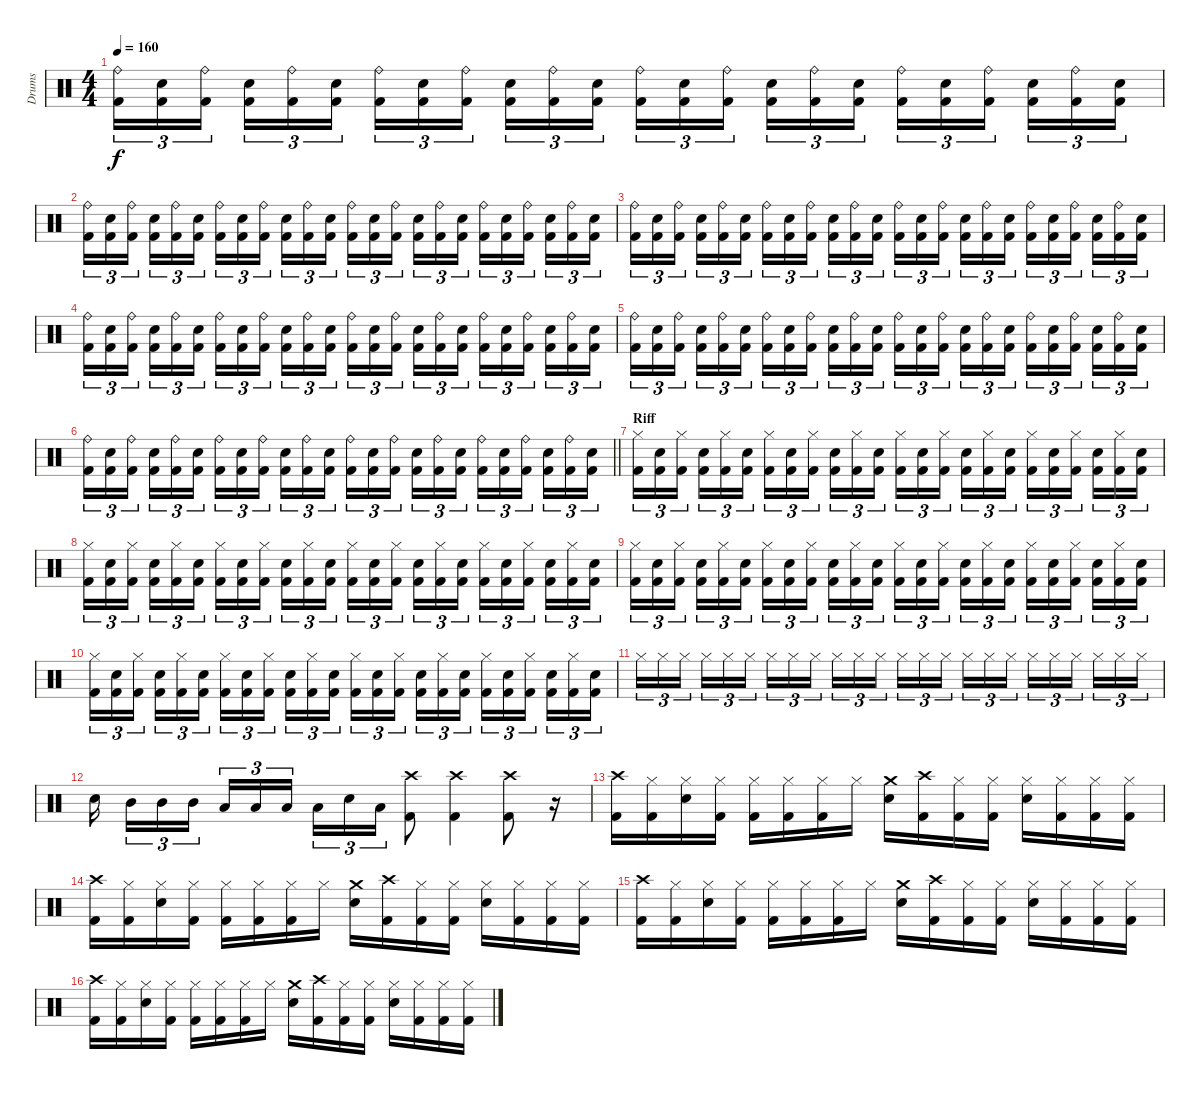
\track ("Drums" "Drums") {instrument percussion}
\staff {score}
\articulation defaults
\ts (4 4)
\tempo 160
\clef neutral
\ks c
("Ride (bell)" "Kick (hit) 2").16{tu (3 2) dy f} ("Electric Snare (hit)" "Kick (hit) 2").16{tu (3 2)} ("Ride (bell)" "Kick (hit) 2").16{tu (3 2) beam splitsecondary} ("Electric Snare (hit)" "Kick (hit) 2").16{tu (3 2)} ("Ride (bell)" "Kick (hit) 2").16{tu (3 2)} ("Electric Snare (hit)" "Kick (hit) 2").16{tu (3 2)} ("Ride (bell)" "Kick (hit) 2").16{tu (3 2)} ("Electric Snare (hit)" "Kick (hit) 2").16{tu (3 2)} ("Ride (bell)" "Kick (hit) 2").16{tu (3 2) beam splitsecondary} ("Electric Snare (hit)" "Kick (hit) 2").16{tu (3 2)} ("Ride (bell)" "Kick (hit) 2").16{tu (3 2)} ("Electric Snare (hit)" "Kick (hit) 2").16{tu (3 2)} ("Ride (bell)" "Kick (hit) 2").16{tu (3 2)} ("Electric Snare (hit)" "Kick (hit) 2").16{tu (3 2)} ("Ride (bell)" "Kick (hit) 2").16{tu (3 2) beam splitsecondary} ("Electric Snare (hit)" "Kick (hit) 2").16{tu (3 2)} ("Ride (bell)" "Kick (hit) 2").16{tu (3 2)} ("Electric Snare (hit)" "Kick (hit) 2").16{tu (3 2)} ("Ride (bell)" "Kick (hit) 2").16{tu (3 2)} ("Electric Snare (hit)" "Kick (hit) 2").16{tu (3 2)} ("Ride (bell)" "Kick (hit) 2").16{tu (3 2) beam splitsecondary} ("Electric Snare (hit)" "Kick (hit) 2").16{tu (3 2)} ("Ride (bell)" "Kick (hit) 2").16{tu (3 2)} ("Electric Snare (hit)" "Kick (hit) 2").16{tu (3 2)} |
("Ride (bell)" "Kick (hit) 2").16{tu (3 2)} ("Electric Snare (hit)" "Kick (hit) 2").16{tu (3 2)} ("Ride (bell)" "Kick (hit) 2").16{tu (3 2) beam splitsecondary} ("Electric Snare (hit)" "Kick (hit) 2").16{tu (3 2)} ("Ride (bell)" "Kick (hit) 2").16{tu (3 2)} ("Electric Snare (hit)" "Kick (hit) 2").16{tu (3 2)} ("Ride (bell)" "Kick (hit) 2").16{tu (3 2)} ("Electric Snare (hit)" "Kick (hit) 2").16{tu (3 2)} ("Ride (bell)" "Kick (hit) 2").16{tu (3 2) beam splitsecondary} ("Electric Snare (hit)" "Kick (hit) 2").16{tu (3 2)} ("Ride (bell)" "Kick (hit) 2").16{tu (3 2)} ("Electric Snare (hit)" "Kick (hit) 2").16{tu (3 2)} ("Ride (bell)" "Kick (hit) 2").16{tu (3 2)} ("Electric Snare (hit)" "Kick (hit) 2").16{tu (3 2)} ("Ride (bell)" "Kick (hit) 2").16{tu (3 2) beam splitsecondary} ("Electric Snare (hit)" "Kick (hit) 2").16{tu (3 2)} ("Ride (bell)" "Kick (hit) 2").16{tu (3 2)} ("Electric Snare (hit)" "Kick (hit) 2").16{tu (3 2)} ("Ride (bell)" "Kick (hit) 2").16{tu (3 2)} ("Electric Snare (hit)" "Kick (hit) 2").16{tu (3 2)} ("Ride (bell)" "Kick (hit) 2").16{tu (3 2) beam splitsecondary} ("Electric Snare (hit)" "Kick (hit) 2").16{tu (3 2)} ("Ride (bell)" "Kick (hit) 2").16{tu (3 2)} ("Electric Snare (hit)" "Kick (hit) 2").16{tu (3 2)} |
("Ride (bell)" "Kick (hit) 2").16{tu (3 2)} ("Electric Snare (hit)" "Kick (hit) 2").16{tu (3 2)} ("Ride (bell)" "Kick (hit) 2").16{tu (3 2) beam splitsecondary} ("Electric Snare (hit)" "Kick (hit) 2").16{tu (3 2)} ("Ride (bell)" "Kick (hit) 2").16{tu (3 2)} ("Electric Snare (hit)" "Kick (hit) 2").16{tu (3 2)} ("Ride (bell)" "Kick (hit) 2").16{tu (3 2)} ("Electric Snare (hit)" "Kick (hit) 2").16{tu (3 2)} ("Ride (bell)" "Kick (hit) 2").16{tu (3 2) beam splitsecondary} ("Electric Snare (hit)" "Kick (hit) 2").16{tu (3 2)} ("Ride (bell)" "Kick (hit) 2").16{tu (3 2)} ("Electric Snare (hit)" "Kick (hit) 2").16{tu (3 2)} ("Ride (bell)" "Kick (hit) 2").16{tu (3 2)} ("Electric Snare (hit)" "Kick (hit) 2").16{tu (3 2)} ("Ride (bell)" "Kick (hit) 2").16{tu (3 2) beam splitsecondary} ("Electric Snare (hit)" "Kick (hit) 2").16{tu (3 2)} ("Ride (bell)" "Kick (hit) 2").16{tu (3 2)} ("Electric Snare (hit)" "Kick (hit) 2").16{tu (3 2)} ("Ride (bell)" "Kick (hit) 2").16{tu (3 2)} ("Electric Snare (hit)" "Kick (hit) 2").16{tu (3 2)} ("Ride (bell)" "Kick (hit) 2").16{tu (3 2) beam splitsecondary} ("Electric Snare (hit)" "Kick (hit) 2").16{tu (3 2)} ("Ride (bell)" "Kick (hit) 2").16{tu (3 2)} ("Electric Snare (hit)" "Kick (hit) 2").16{tu (3 2)} |
("Ride (bell)" "Kick (hit) 2").16{tu (3 2)} ("Electric Snare (hit)" "Kick (hit) 2").16{tu (3 2)} ("Ride (bell)" "Kick (hit) 2").16{tu (3 2) beam splitsecondary} ("Electric Snare (hit)" "Kick (hit) 2").16{tu (3 2)} ("Ride (bell)" "Kick (hit) 2").16{tu (3 2)} ("Electric Snare (hit)" "Kick (hit) 2").16{tu (3 2)} ("Ride (bell)" "Kick (hit) 2").16{tu (3 2)} ("Electric Snare (hit)" "Kick (hit) 2").16{tu (3 2)} ("Ride (bell)" "Kick (hit) 2").16{tu (3 2) beam splitsecondary} ("Electric Snare (hit)" "Kick (hit) 2").16{tu (3 2)} ("Ride (bell)" "Kick (hit) 2").16{tu (3 2)} ("Electric Snare (hit)" "Kick (hit) 2").16{tu (3 2)} ("Ride (bell)" "Kick (hit) 2").16{tu (3 2)} ("Electric Snare (hit)" "Kick (hit) 2").16{tu (3 2)} ("Ride (bell)" "Kick (hit) 2").16{tu (3 2) beam splitsecondary} ("Electric Snare (hit)" "Kick (hit) 2").16{tu (3 2)} ("Ride (bell)" "Kick (hit) 2").16{tu (3 2)} ("Electric Snare (hit)" "Kick (hit) 2").16{tu (3 2)} ("Ride (bell)" "Kick (hit) 2").16{tu (3 2)} ("Electric Snare (hit)" "Kick (hit) 2").16{tu (3 2)} ("Ride (bell)" "Kick (hit) 2").16{tu (3 2) beam splitsecondary} ("Electric Snare (hit)" "Kick (hit) 2").16{tu (3 2)} ("Ride (bell)" "Kick (hit) 2").16{tu (3 2)} ("Electric Snare (hit)" "Kick (hit) 2").16{tu (3 2)} |
("Ride (bell)" "Kick (hit) 2").16{tu (3 2)} ("Electric Snare (hit)" "Kick (hit) 2").16{tu (3 2)} ("Ride (bell)" "Kick (hit) 2").16{tu (3 2) beam splitsecondary} ("Electric Snare (hit)" "Kick (hit) 2").16{tu (3 2)} ("Ride (bell)" "Kick (hit) 2").16{tu (3 2)} ("Electric Snare (hit)" "Kick (hit) 2").16{tu (3 2)} ("Ride (bell)" "Kick (hit) 2").16{tu (3 2)} ("Electric Snare (hit)" "Kick (hit) 2").16{tu (3 2)} ("Ride (bell)" "Kick (hit) 2").16{tu (3 2) beam splitsecondary} ("Electric Snare (hit)" "Kick (hit) 2").16{tu (3 2)} ("Ride (bell)" "Kick (hit) 2").16{tu (3 2)} ("Electric Snare (hit)" "Kick (hit) 2").16{tu (3 2)} ("Ride (bell)" "Kick (hit) 2").16{tu (3 2)} ("Electric Snare (hit)" "Kick (hit) 2").16{tu (3 2)} ("Ride (bell)" "Kick (hit) 2").16{tu (3 2) beam splitsecondary} ("Electric Snare (hit)" "Kick (hit) 2").16{tu (3 2)} ("Ride (bell)" "Kick (hit) 2").16{tu (3 2)} ("Electric Snare (hit)" "Kick (hit) 2").16{tu (3 2)} ("Ride (bell)" "Kick (hit) 2").16{tu (3 2)} ("Electric Snare (hit)" "Kick (hit) 2").16{tu (3 2)} ("Ride (bell)" "Kick (hit) 2").16{tu (3 2) beam splitsecondary} ("Electric Snare (hit)" "Kick (hit) 2").16{tu (3 2)} ("Ride (bell)" "Kick (hit) 2").16{tu (3 2)} ("Electric Snare (hit)" "Kick (hit) 2").16{tu (3 2)} |
\barLineRight lightlight
("Ride (bell)" "Kick (hit) 2").16{tu (3 2)} ("Electric Snare (hit)" "Kick (hit) 2").16{tu (3 2)} ("Ride (bell)" "Kick (hit) 2").16{tu (3 2) beam splitsecondary} ("Electric Snare (hit)" "Kick (hit) 2").16{tu (3 2)} ("Ride (bell)" "Kick (hit) 2").16{tu (3 2)} ("Electric Snare (hit)" "Kick (hit) 2").16{tu (3 2)} ("Ride (bell)" "Kick (hit) 2").16{tu (3 2)} ("Electric Snare (hit)" "Kick (hit) 2").16{tu (3 2)} ("Ride (bell)" "Kick (hit) 2").16{tu (3 2) beam splitsecondary} ("Electric Snare (hit)" "Kick (hit) 2").16{tu (3 2)} ("Ride (bell)" "Kick (hit) 2").16{tu (3 2)} ("Electric Snare (hit)" "Kick (hit) 2").16{tu (3 2)} ("Ride (bell)" "Kick (hit) 2").16{tu (3 2)} ("Electric Snare (hit)" "Kick (hit) 2").16{tu (3 2)} ("Ride (bell)" "Kick (hit) 2").16{tu (3 2) beam splitsecondary} ("Electric Snare (hit)" "Kick (hit) 2").16{tu (3 2)} ("Ride (bell)" "Kick (hit) 2").16{tu (3 2)} ("Electric Snare (hit)" "Kick (hit) 2").16{tu (3 2)} ("Ride (bell)" "Kick (hit) 2").16{tu (3 2)} ("Electric Snare (hit)" "Kick (hit) 2").16{tu (3 2)} ("Ride (bell)" "Kick (hit) 2").16{tu (3 2) beam splitsecondary} ("Electric Snare (hit)" "Kick (hit) 2").16{tu (3 2)} ("Ride (bell)" "Kick (hit) 2").16{tu (3 2)} ("Electric Snare (hit)" "Kick (hit) 2").16{tu (3 2)} |
\section ("" "Riff")
("Hi-Hat (closed)" "Kick (hit) 2").16{tu (3 2)} ("Electric Snare (hit)" "Kick (hit) 2").16{tu (3 2)} ("Hi-Hat (closed)" "Kick (hit) 2").16{tu (3 2) beam splitsecondary} ("Electric Snare (hit)" "Kick (hit) 2").16{tu (3 2)} ("Hi-Hat (closed)" "Kick (hit) 2").16{tu (3 2)} ("Electric Snare (hit)" "Kick (hit) 2").16{tu (3 2)} ("Hi-Hat (closed)" "Kick (hit) 2").16{tu (3 2)} ("Electric Snare (hit)" "Kick (hit) 2").16{tu (3 2)} ("Hi-Hat (closed)" "Kick (hit) 2").16{tu (3 2) beam splitsecondary} ("Electric Snare (hit)" "Kick (hit) 2").16{tu (3 2)} ("Hi-Hat (closed)" "Kick (hit) 2").16{tu (3 2)} ("Electric Snare (hit)" "Kick (hit) 2").16{tu (3 2)} ("Hi-Hat (closed)" "Kick (hit) 2").16{tu (3 2)} ("Electric Snare (hit)" "Kick (hit) 2").16{tu (3 2)} ("Hi-Hat (closed)" "Kick (hit) 2").16{tu (3 2) beam splitsecondary} ("Electric Snare (hit)" "Kick (hit) 2").16{tu (3 2)} ("Hi-Hat (closed)" "Kick (hit) 2").16{tu (3 2)} ("Electric Snare (hit)" "Kick (hit) 2").16{tu (3 2)} ("Hi-Hat (closed)" "Kick (hit) 2").16{tu (3 2)} ("Electric Snare (hit)" "Kick (hit) 2").16{tu (3 2)} ("Hi-Hat (closed)" "Kick (hit) 2").16{tu (3 2) beam splitsecondary} ("Electric Snare (hit)" "Kick (hit) 2").16{tu (3 2)} ("Hi-Hat (closed)" "Kick (hit) 2").16{tu (3 2)} ("Electric Snare (hit)" "Kick (hit) 2").16{tu (3 2)} |
("Hi-Hat (closed)" "Kick (hit) 2").16{tu (3 2)} ("Electric Snare (hit)" "Kick (hit) 2").16{tu (3 2)} ("Hi-Hat (closed)" "Kick (hit) 2").16{tu (3 2) beam splitsecondary} ("Electric Snare (hit)" "Kick (hit) 2").16{tu (3 2)} ("Hi-Hat (closed)" "Kick (hit) 2").16{tu (3 2)} ("Electric Snare (hit)" "Kick (hit) 2").16{tu (3 2)} ("Hi-Hat (closed)" "Kick (hit) 2").16{tu (3 2)} ("Electric Snare (hit)" "Kick (hit) 2").16{tu (3 2)} ("Hi-Hat (closed)" "Kick (hit) 2").16{tu (3 2) beam splitsecondary} ("Electric Snare (hit)" "Kick (hit) 2").16{tu (3 2)} ("Hi-Hat (closed)" "Kick (hit) 2").16{tu (3 2)} ("Electric Snare (hit)" "Kick (hit) 2").16{tu (3 2)} ("Hi-Hat (closed)" "Kick (hit) 2").16{tu (3 2)} ("Electric Snare (hit)" "Kick (hit) 2").16{tu (3 2)} ("Hi-Hat (closed)" "Kick (hit) 2").16{tu (3 2) beam splitsecondary} ("Electric Snare (hit)" "Kick (hit) 2").16{tu (3 2)} ("Hi-Hat (closed)" "Kick (hit) 2").16{tu (3 2)} ("Electric Snare (hit)" "Kick (hit) 2").16{tu (3 2)} ("Hi-Hat (closed)" "Kick (hit) 2").16{tu (3 2)} ("Electric Snare (hit)" "Kick (hit) 2").16{tu (3 2)} ("Hi-Hat (closed)" "Kick (hit) 2").16{tu (3 2) beam splitsecondary} ("Electric Snare (hit)" "Kick (hit) 2").16{tu (3 2)} ("Hi-Hat (closed)" "Kick (hit) 2").16{tu (3 2)} ("Electric Snare (hit)" "Kick (hit) 2").16{tu (3 2)} |
("Hi-Hat (closed)" "Kick (hit) 2").16{tu (3 2)} ("Electric Snare (hit)" "Kick (hit) 2").16{tu (3 2)} ("Hi-Hat (closed)" "Kick (hit) 2").16{tu (3 2) beam splitsecondary} ("Electric Snare (hit)" "Kick (hit) 2").16{tu (3 2)} ("Hi-Hat (closed)" "Kick (hit) 2").16{tu (3 2)} ("Electric Snare (hit)" "Kick (hit) 2").16{tu (3 2)} ("Hi-Hat (closed)" "Kick (hit) 2").16{tu (3 2)} ("Electric Snare (hit)" "Kick (hit) 2").16{tu (3 2)} ("Hi-Hat (closed)" "Kick (hit) 2").16{tu (3 2) beam splitsecondary} ("Electric Snare (hit)" "Kick (hit) 2").16{tu (3 2)} ("Hi-Hat (closed)" "Kick (hit) 2").16{tu (3 2)} ("Electric Snare (hit)" "Kick (hit) 2").16{tu (3 2)} ("Hi-Hat (closed)" "Kick (hit) 2").16{tu (3 2)} ("Electric Snare (hit)" "Kick (hit) 2").16{tu (3 2)} ("Hi-Hat (closed)" "Kick (hit) 2").16{tu (3 2) beam splitsecondary} ("Electric Snare (hit)" "Kick (hit) 2").16{tu (3 2)} ("Hi-Hat (closed)" "Kick (hit) 2").16{tu (3 2)} ("Electric Snare (hit)" "Kick (hit) 2").16{tu (3 2)} ("Hi-Hat (closed)" "Kick (hit) 2").16{tu (3 2)} ("Electric Snare (hit)" "Kick (hit) 2").16{tu (3 2)} ("Hi-Hat (closed)" "Kick (hit) 2").16{tu (3 2) beam splitsecondary} ("Electric Snare (hit)" "Kick (hit) 2").16{tu (3 2)} ("Hi-Hat (closed)" "Kick (hit) 2").16{tu (3 2)} ("Electric Snare (hit)" "Kick (hit) 2").16{tu (3 2)} |
("Hi-Hat (closed)" "Kick (hit) 2").16{tu (3 2)} ("Electric Snare (hit)" "Kick (hit) 2").16{tu (3 2)} ("Hi-Hat (closed)" "Kick (hit) 2").16{tu (3 2) beam splitsecondary} ("Electric Snare (hit)" "Kick (hit) 2").16{tu (3 2)} ("Hi-Hat (closed)" "Kick (hit) 2").16{tu (3 2)} ("Electric Snare (hit)" "Kick (hit) 2").16{tu (3 2)} ("Hi-Hat (closed)" "Kick (hit) 2").16{tu (3 2)} ("Electric Snare (hit)" "Kick (hit) 2").16{tu (3 2)} ("Hi-Hat (closed)" "Kick (hit) 2").16{tu (3 2) beam splitsecondary} ("Electric Snare (hit)" "Kick (hit) 2").16{tu (3 2)} ("Hi-Hat (closed)" "Kick (hit) 2").16{tu (3 2)} ("Electric Snare (hit)" "Kick (hit) 2").16{tu (3 2)} ("Hi-Hat (closed)" "Kick (hit) 2").16{tu (3 2)} ("Electric Snare (hit)" "Kick (hit) 2").16{tu (3 2)} ("Hi-Hat (closed)" "Kick (hit) 2").16{tu (3 2) beam splitsecondary} ("Electric Snare (hit)" "Kick (hit) 2").16{tu (3 2)} ("Hi-Hat (closed)" "Kick (hit) 2").16{tu (3 2)} ("Electric Snare (hit)" "Kick (hit) 2").16{tu (3 2)} ("Hi-Hat (closed)" "Kick (hit) 2").16{tu (3 2)} ("Electric Snare (hit)" "Kick (hit) 2").16{tu (3 2)} ("Hi-Hat (closed)" "Kick (hit) 2").16{tu (3 2) beam splitsecondary} ("Electric Snare (hit)" "Kick (hit) 2").16{tu (3 2)} ("Hi-Hat (closed)" "Kick (hit) 2").16{tu (3 2)} ("Electric Snare (hit)" "Kick (hit) 2").16{tu (3 2)} |
"Hi-Hat (closed)".16{tu (3 2)} "Hi-Hat (closed)".16{tu (3 2)} "Hi-Hat (closed)".16{tu (3 2) beam splitsecondary} "Hi-Hat (closed)".16{tu (3 2)} "Hi-Hat (closed)".16{tu (3 2)} "Hi-Hat (closed)".16{tu (3 2)} "Hi-Hat (closed)".16{tu (3 2)} "Hi-Hat (closed)".16{tu (3 2)} "Hi-Hat (closed)".16{tu (3 2) beam splitsecondary} "Hi-Hat (closed)".16{tu (3 2)} "Hi-Hat (closed)".16{tu (3 2)} "Hi-Hat (closed)".16{tu (3 2)} "Hi-Hat (closed)".16{tu (3 2)} "Hi-Hat (closed)".16{tu (3 2)} "Hi-Hat (closed)".16{tu (3 2) beam splitsecondary} "Hi-Hat (closed)".16{tu (3 2)} "Hi-Hat (closed)".16{tu (3 2)} "Hi-Hat (closed)".16{tu (3 2)} "Hi-Hat (closed)".16{tu (3 2)} "Hi-Hat (closed)".16{tu (3 2)} "Hi-Hat (closed)".16{tu (3 2) beam splitsecondary} "Hi-Hat (closed)".16{tu (3 2)} "Hi-Hat (closed)".16{tu (3 2)} "Hi-Hat (closed)".16{tu (3 2)} |
"Electric Snare (hit)".16{beam splitsecondary} "Mid Tom (hit)".16{tu (3 2)} "Mid Tom (hit)".16{tu (3 2)} "Mid Tom (hit)".16{tu (3 2) beam splitsecondary} "Low Tom (hit)".16{tu (3 2)} "Low Tom (hit)".16{tu (3 2)} "Low Tom (hit)".16{tu (3 2) beam splitsecondary} "Low Tom (hit)".16{tu (3 2)} "Electric Snare (hit)".16{tu (3 2)} "Low Tom (hit)".16{tu (3 2)} ("Crash high (hit)" "Kick (hit) 2").8 ("Crash high (hit)" "Kick (hit) 2").4 ("Crash high (hit)" "Kick (hit) 2").8 r.16 |
("Crash high (hit)" "Kick (hit) 2").16 ("Hi-Hat (closed)" "Kick (hit) 2").16 ("Hi-Hat (closed)" "Electric Snare (hit)").16 ("Hi-Hat (closed)" "Kick (hit) 2").16 ("Hi-Hat (closed)" "Kick (hit) 2").16 ("Hi-Hat (closed)" "Kick (hit) 2").16 ("Hi-Hat (closed)" "Kick (hit) 2").16 "Hi-Hat (closed)".16 ("Crash medium (hit)" "Electric Snare (hit)").16 ("Crash high (hit)" "Kick (hit) 2").16 ("Hi-Hat (closed)" "Kick (hit) 2").16 ("Hi-Hat (closed)" "Kick (hit) 2").16 ("Hi-Hat (closed)" "Electric Snare (hit)").16 ("Hi-Hat (closed)" "Kick (hit) 2").16 ("Hi-Hat (closed)" "Kick (hit) 2").16 ("Hi-Hat (closed)" "Kick (hit) 2").16 |
("Crash high (hit)" "Kick (hit) 2").16 ("Hi-Hat (closed)" "Kick (hit) 2").16 ("Hi-Hat (closed)" "Electric Snare (hit)").16 ("Hi-Hat (closed)" "Kick (hit) 2").16 ("Hi-Hat (closed)" "Kick (hit) 2").16 ("Hi-Hat (closed)" "Kick (hit) 2").16 ("Hi-Hat (closed)" "Kick (hit) 2").16 "Hi-Hat (closed)".16 ("Crash medium (hit)" "Electric Snare (hit)").16 ("Crash high (hit)" "Kick (hit) 2").16 ("Hi-Hat (closed)" "Kick (hit) 2").16 ("Hi-Hat (closed)" "Kick (hit) 2").16 ("Hi-Hat (closed)" "Electric Snare (hit)").16 ("Hi-Hat (closed)" "Kick (hit) 2").16 ("Hi-Hat (closed)" "Kick (hit) 2").16 ("Hi-Hat (closed)" "Kick (hit) 2").16 |
("Crash high (hit)" "Kick (hit) 2").16 ("Hi-Hat (closed)" "Kick (hit) 2").16 ("Hi-Hat (closed)" "Electric Snare (hit)").16 ("Hi-Hat (closed)" "Kick (hit) 2").16 ("Hi-Hat (closed)" "Kick (hit) 2").16 ("Hi-Hat (closed)" "Kick (hit) 2").16 ("Hi-Hat (closed)" "Kick (hit) 2").16 "Hi-Hat (closed)".16 ("Crash medium (hit)" "Electric Snare (hit)").16 ("Crash high (hit)" "Kick (hit) 2").16 ("Hi-Hat (closed)" "Kick (hit) 2").16 ("Hi-Hat (closed)" "Kick (hit) 2").16 ("Hi-Hat (closed)" "Electric Snare (hit)").16 ("Hi-Hat (closed)" "Kick (hit) 2").16 ("Hi-Hat (closed)" "Kick (hit) 2").16 ("Hi-Hat (closed)" "Kick (hit) 2").16 |
("Crash high (hit)" "Kick (hit) 2").16 ("Hi-Hat (closed)" "Kick (hit) 2").16 ("Hi-Hat (closed)" "Electric Snare (hit)").16 ("Hi-Hat (closed)" "Kick (hit) 2").16 ("Hi-Hat (closed)" "Kick (hit) 2").16 ("Hi-Hat (closed)" "Kick (hit) 2").16 ("Hi-Hat (closed)" "Kick (hit) 2").16 "Hi-Hat (closed)".16 ("Crash medium (hit)" "Electric Snare (hit)").16 ("Crash high (hit)" "Kick (hit) 2").16 ("Hi-Hat (closed)" "Kick (hit) 2").16 ("Hi-Hat (closed)" "Kick (hit) 2").16 ("Hi-Hat (closed)" "Electric Snare (hit)").16 ("Hi-Hat (closed)" "Kick (hit) 2").16 ("Hi-Hat (closed)" "Kick (hit) 2").16 ("Hi-Hat (closed)" "Kick (hit) 2").16
